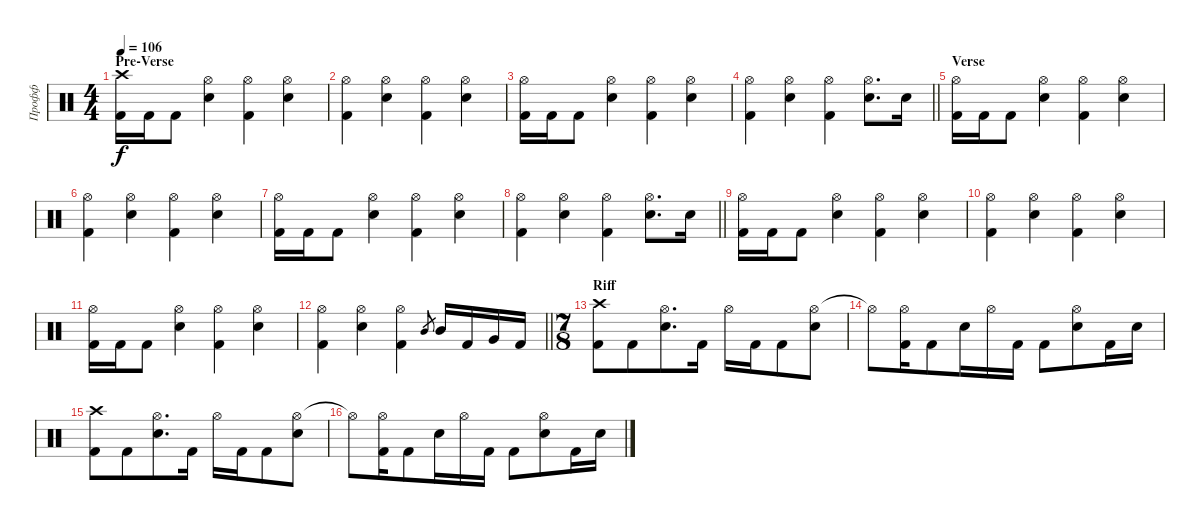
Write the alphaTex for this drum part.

\track ("Профф" "Профф") {instrument percussion}
\staff {score}
\articulation defaults
\ts (4 4)
\section ("" "Pre-Verse")
\tempo 106
\clef neutral
\ks c
("Crash high (hit)" "Kick (hit) 2").16{dy f} "Kick (hit) 2".16 "Kick (hit) 2".8 ("Hi-Hat (open)" "Snare (hit) 2").4 ("Hi-Hat (open)" "Kick (hit) 2").4 ("Hi-Hat (open)" "Snare (hit) 2").4 |
("Hi-Hat (open)" "Kick (hit) 2").4 ("Hi-Hat (open)" "Snare (hit) 2").4 ("Hi-Hat (open)" "Kick (hit) 2").4 ("Hi-Hat (open)" "Snare (hit) 2").4 |
("Hi-Hat (open)" "Kick (hit) 2").16 "Kick (hit) 2".16 "Kick (hit) 2".8 ("Hi-Hat (open)" "Snare (hit) 2").4 ("Hi-Hat (open)" "Kick (hit) 2").4 ("Hi-Hat (open)" "Snare (hit) 2").4 |
\barLineRight lightlight
("Hi-Hat (open)" "Kick (hit) 2").4 ("Hi-Hat (open)" "Snare (hit) 2").4 ("Hi-Hat (open)" "Kick (hit) 2").4 ("Hi-Hat (open)" "Snare (hit) 2").8{d} "Snare (hit) 2".16 |
\section ("" "Verse")
("Hi-Hat (open)" "Kick (hit) 2").16 "Kick (hit) 2".16 "Kick (hit) 2".8 ("Hi-Hat (open)" "Snare (hit) 2").4 ("Hi-Hat (open)" "Kick (hit) 2").4 ("Hi-Hat (open)" "Snare (hit) 2").4 |
("Hi-Hat (open)" "Kick (hit) 2").4 ("Hi-Hat (open)" "Snare (hit) 2").4 ("Hi-Hat (open)" "Kick (hit) 2").4 ("Hi-Hat (open)" "Snare (hit) 2").4 |
("Hi-Hat (open)" "Kick (hit) 2").16 "Kick (hit) 2".16 "Kick (hit) 2".8 ("Hi-Hat (open)" "Snare (hit) 2").4 ("Hi-Hat (open)" "Kick (hit) 2").4 ("Hi-Hat (open)" "Snare (hit) 2").4 |
\barLineRight lightlight
("Hi-Hat (open)" "Kick (hit) 2").4 ("Hi-Hat (open)" "Snare (hit) 2").4 ("Hi-Hat (open)" "Kick (hit) 2").4 ("Hi-Hat (open)" "Snare (hit) 2").8{d} "Snare (hit) 2".16 |
("Hi-Hat (open)" "Kick (hit) 2").16 "Kick (hit) 2".16 "Kick (hit) 2".8 ("Hi-Hat (open)" "Snare (hit) 2").4 ("Hi-Hat (open)" "Kick (hit) 2").4 ("Hi-Hat (open)" "Snare (hit) 2").4 |
("Hi-Hat (open)" "Kick (hit) 2").4 ("Hi-Hat (open)" "Snare (hit) 2").4 ("Hi-Hat (open)" "Kick (hit) 2").4 ("Hi-Hat (open)" "Snare (hit) 2").4 |
("Hi-Hat (open)" "Kick (hit) 2").16 "Kick (hit) 2".16 "Kick (hit) 2".8 ("Hi-Hat (open)" "Snare (hit) 2").4 ("Hi-Hat (open)" "Kick (hit) 2").4 ("Hi-Hat (open)" "Snare (hit) 2").4 |
\barLineRight lightlight
("Hi-Hat (open)" "Kick (hit) 2").4 ("Hi-Hat (open)" "Snare (hit) 2").4 ("Hi-Hat (open)" "Kick (hit) 2").4 "Mid Tom (hit)".8{gr} "Mid Tom (hit)".16 "Kick (hit) 2".16 "Very Low Tom (hit)".16 "Kick (hit) 2".16 |
\ts (7 8)
\section ("" "Riff")
("Crash high (hit)" "Kick (hit) 2").8 "Kick (hit) 2".8 ("Hi-Hat (open)" "Snare (hit) 2").8{d} "Kick (hit) 2".16 "Hi-Hat (open)".16 "Kick (hit) 2".16 "Kick (hit) 2".8 ("Hi-Hat (open)" "Snare (hit) 2").8 |
"Hi-Hat (open)"{t}.8 ("Hi-Hat (open)" "Kick (hit) 2").16 "Kick (hit) 2".8 "Snare (hit) 2".16 "Hi-Hat (open)".16 "Kick (hit) 2".16 "Kick (hit) 2".8 ("Hi-Hat (open)" "Snare (hit) 2").8 "Kick (hit) 2".16 "Snare (hit) 2".16 |
("Crash high (hit)" "Kick (hit) 2").8 "Kick (hit) 2".8 ("Hi-Hat (open)" "Snare (hit) 2").8{d} "Kick (hit) 2".16 "Hi-Hat (open)".16 "Kick (hit) 2".16 "Kick (hit) 2".8 ("Hi-Hat (open)" "Snare (hit) 2").8 |
"Hi-Hat (open)"{t}.8 ("Hi-Hat (open)" "Kick (hit) 2").16 "Kick (hit) 2".8 "Snare (hit) 2".16 "Hi-Hat (open)".16 "Kick (hit) 2".16 "Kick (hit) 2".8 ("Hi-Hat (open)" "Snare (hit) 2").8 "Kick (hit) 2".16 "Snare (hit) 2".16
